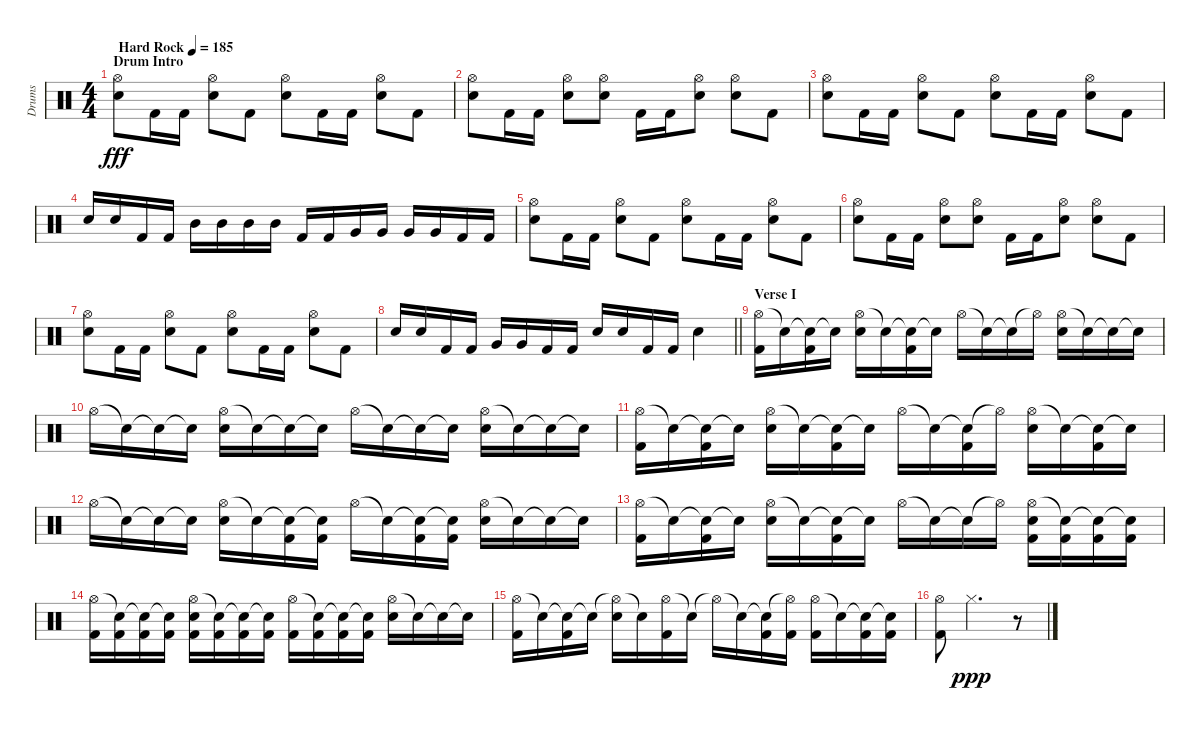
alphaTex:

\track ("Drums" "Drums") {instrument percussion}
\staff {score}
\articulation defaults
\ts (4 4)
\section ("" "Drum Intro")
\tempo (185 "Hard Rock")
\clef neutral
\ks c
("Hi-Hat (open)" "Electric Snare (hit)").8{dy fff volume 7 balance 16} "Kick (hit) 2".16 "Kick (hit) 2".16 ("Hi-Hat (open)" "Electric Snare (hit)").8 "Kick (hit) 2".8 ("Hi-Hat (open)" "Electric Snare (hit)").8 "Kick (hit) 2".16 "Kick (hit) 2".16 ("Hi-Hat (open)" "Electric Snare (hit)").8 "Kick (hit) 2".8 |
("Hi-Hat (open)" "Electric Snare (hit)").8 "Kick (hit) 2".16 "Kick (hit) 2".16 ("Hi-Hat (open)" "Electric Snare (hit)").8 ("Hi-Hat (open)" "Electric Snare (hit)").8 "Kick (hit) 2".16 "Kick (hit) 2".16 ("Hi-Hat (open)" "Electric Snare (hit)").8 ("Hi-Hat (open)" "Electric Snare (hit)").8 "Kick (hit) 2".8 |
("Hi-Hat (open)" "Electric Snare (hit)").8 "Kick (hit) 2".16 "Kick (hit) 2".16 ("Hi-Hat (open)" "Electric Snare (hit)").8 "Kick (hit) 2".8 ("Hi-Hat (open)" "Electric Snare (hit)").8 "Kick (hit) 2".16 "Kick (hit) 2".16 ("Hi-Hat (open)" "Electric Snare (hit)").8 "Kick (hit) 2".8 |
"Electric Snare (hit)".16 "Electric Snare (hit)".16 "Kick (hit) 2".16 "Kick (hit) 2".16 "Mid Tom (hit)".16{balance 5} "Mid Tom (hit)".16 "Mid Tom (hit)".16 "Mid Tom (hit)".16 "Kick (hit) 2".16{balance 16} "Kick (hit) 2".16 "Very Low Tom (hit)".16{balance 0} "Very Low Tom (hit)".16 "Very Low Tom (hit)".16 "Very Low Tom (hit)".16 "Kick (hit) 2".16{balance 16} "Kick (hit) 2".16 |
("Hi-Hat (open)" "Electric Snare (hit)").8 "Kick (hit) 2".16 "Kick (hit) 2".16 ("Hi-Hat (open)" "Electric Snare (hit)").8 "Kick (hit) 2".8 ("Hi-Hat (open)" "Electric Snare (hit)").8 "Kick (hit) 2".16 "Kick (hit) 2".16 ("Hi-Hat (open)" "Electric Snare (hit)").8 "Kick (hit) 2".8 |
("Hi-Hat (open)" "Electric Snare (hit)").8 "Kick (hit) 2".16 "Kick (hit) 2".16 ("Hi-Hat (open)" "Electric Snare (hit)").8 ("Hi-Hat (open)" "Electric Snare (hit)").8 "Kick (hit) 2".16 "Kick (hit) 2".16 ("Hi-Hat (open)" "Electric Snare (hit)").8 ("Hi-Hat (open)" "Electric Snare (hit)").8 "Kick (hit) 2".8 |
("Hi-Hat (open)" "Electric Snare (hit)").8 "Kick (hit) 2".16 "Kick (hit) 2".16 ("Hi-Hat (open)" "Electric Snare (hit)").8 "Kick (hit) 2".8 ("Hi-Hat (open)" "Electric Snare (hit)").8 "Kick (hit) 2".16 "Kick (hit) 2".16 ("Hi-Hat (open)" "Electric Snare (hit)").8 "Kick (hit) 2".8 |
\barLineRight lightlight "Electric Snare (hit)".16 "Electric Snare (hit)".16 "Kick (hit) 2".16 "Kick (hit) 2".16 "Very Low Tom (hit)".16 "Very Low Tom (hit)".16 "Kick (hit) 2".16 "Kick (hit) 2".16 "Electric Snare (hit)".16 "Electric Snare (hit)".16 "Kick (hit) 2".16 "Kick (hit) 2".16 "Electric Snare (hit)".4
|
\section ("" "Verse I")
("Hi-Hat (open)" "Kick (hit) 2").16{volume 13} "Snare (hit)"{t}.16 ("Snare (hit)"{t} "Kick (hit) 2").16 "Snare (hit)"{t}.16 ("Hi-Hat (open)" "Electric Snare (hit)").16 "Snare (hit)"{t}.16 ("Snare (hit)"{t} "Kick (hit) 2").16 "Snare (hit)"{t}.16 "Hi-Hat (open)".16 "Snare (hit)"{t}.16 "Snare (hit)"{t}.16 "Hi-Hat (open)"{t}.16 ("Hi-Hat (open)" "Electric Snare (hit)").16 "Snare (hit)"{t}.16 "Snare (hit)"{t}.16 "Snare (hit)"{t}.16 |
"Hi-Hat (open)".16 "Snare (hit)"{t}.16 "Snare (hit)"{t}.16 "Snare (hit)"{t}.16 ("Hi-Hat (open)" "Electric Snare (hit)").16 "Snare (hit)"{t}.16 "Snare (hit)"{t}.16 "Snare (hit)"{t}.16 "Hi-Hat (open)".16 "Snare (hit)"{t}.16 "Snare (hit)"{t}.16 "Snare (hit)"{t}.16 ("Hi-Hat (open)" "Electric Snare (hit)").16 "Snare (hit)"{t}.16 "Snare (hit)"{t}.16 "Snare (hit)"{t}.16 |
("Hi-Hat (open)" "Kick (hit) 2").16 "Snare (hit)"{t}.16 ("Snare (hit)"{t} "Kick (hit) 2").16 "Snare (hit)"{t}.16 ("Hi-Hat (open)" "Electric Snare (hit)").16 "Snare (hit)"{t}.16 ("Snare (hit)"{t} "Kick (hit) 2").16 "Snare (hit)"{t}.16 "Hi-Hat (open)".16 "Snare (hit)"{t}.16 ("Snare (hit)"{t} "Kick (hit) 2").16 "Hi-Hat (open)"{t}.16 ("Hi-Hat (open)" "Electric Snare (hit)").16 "Snare (hit)"{t}.16 ("Snare (hit)"{t} "Kick (hit) 2").16 "Snare (hit)"{t}.16 |
"Hi-Hat (open)".16 "Snare (hit)"{t}.16 "Snare (hit)"{t}.16 "Snare (hit)"{t}.16 ("Hi-Hat (open)" "Electric Snare (hit)").16 "Snare (hit)"{t}.16 ("Snare (hit)"{t} "Kick (hit) 2").16 ("Snare (hit)"{t} "Kick (hit) 2").16 "Hi-Hat (open)".16 "Snare (hit)"{t}.16 ("Snare (hit)"{t} "Kick (hit) 2").16 ("Snare (hit)"{t} "Kick (hit) 2").16 ("Hi-Hat (open)" "Electric Snare (hit)").16 "Snare (hit)"{t}.16 "Snare (hit)"{t}.16 "Snare (hit)"{t}.16 |
("Hi-Hat (open)" "Kick (hit) 2").16 "Snare (hit)"{t}.16 ("Snare (hit)"{t} "Kick (hit) 2").16 "Snare (hit)"{t}.16 ("Hi-Hat (open)" "Electric Snare (hit)").16 "Snare (hit)"{t}.16 ("Snare (hit)"{t} "Kick (hit) 2").16 "Snare (hit)"{t}.16 "Hi-Hat (open)".16 "Snare (hit)"{t}.16 "Snare (hit)"{t}.16 "Hi-Hat (open)"{t}.16 ("Hi-Hat (open)" "Electric Snare (hit)" "Kick (hit) 2").16 ("Snare (hit)"{t} "Kick (hit) 2").16 ("Snare (hit)"{t} "Kick (hit) 2").16 ("Snare (hit)"{t} "Kick (hit) 2").16 |
("Hi-Hat (open)" "Kick (hit) 2").16 ("Snare (hit)"{t} "Kick (hit) 2").16 ("Snare (hit)"{t} "Kick (hit) 2").16 ("Snare (hit)"{t} "Kick (hit) 2").16 ("Hi-Hat (open)" "Electric Snare (hit)" "Kick (hit) 2").16 ("Snare (hit)"{t} "Kick (hit) 2").16 ("Snare (hit)"{t} "Kick (hit) 2").16 ("Snare (hit)"{t} "Kick (hit) 2").16 ("Hi-Hat (open)" "Kick (hit) 2").16 ("Snare (hit)"{t} "Kick (hit) 2").16 ("Snare (hit)"{t} "Kick (hit) 2").16 ("Snare (hit)"{t} "Kick (hit) 2").16 ("Hi-Hat (open)" "Electric Snare (hit)").16 "Snare (hit)"{t}.16 "Snare (hit)"{t}.16 "Snare (hit)"{t}.16 |
("Hi-Hat (open)" "Kick (hit) 2").16 "Snare (hit)"{t}.16 ("Snare (hit)"{t} "Kick (hit) 2").16 "Snare (hit)"{t}.16 ("Hi-Hat (open)"{t} "Electric Snare (hit)").16 "Snare (hit)"{t}.16 ("Hi-Hat (open)" "Kick (hit) 2").16 "Snare (hit)"{t}.16 "Hi-Hat (open)"{t}.16 "Snare (hit)"{t}.16 ("Snare (hit)"{t} "Kick (hit) 2").16 ("Hi-Hat (open)"{t} "Kick (hit) 2").16 ("Hi-Hat (open)" "Kick (hit) 2").16 "Snare (hit)"{t}.16 ("Snare (hit)"{t} "Kick (hit) 2").16 ("Snare (hit)"{t} "Kick (hit) 2").16 |
("Hi-Hat (open)" "Kick (hit) 2").8 "Hi-Hat (closed)".2{d dy ppp} r.8
